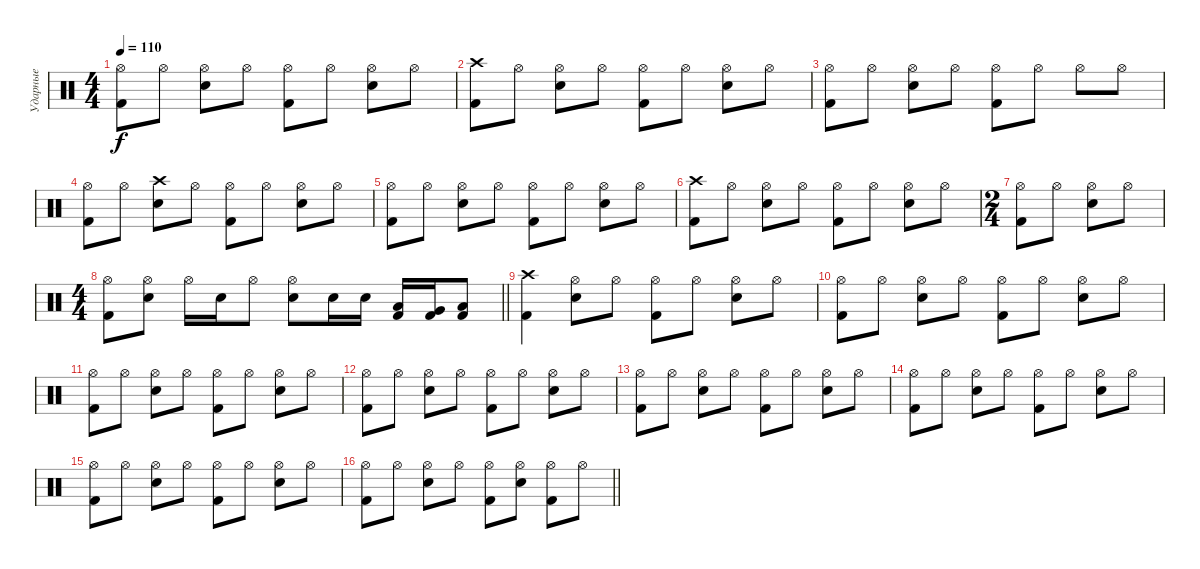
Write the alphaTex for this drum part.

\track ("Ударные" "Ударные") {instrument percussion}
\staff
\articulation defaults
\ts (4 4)
\tempo 110
\clef neutral
\ks c
("Kick (hit) 2" "Hi-Hat (open)").8{dy f} "Hi-Hat (open)".8 ("Snare (hit) 2" "Hi-Hat (open)").8 "Hi-Hat (open)".8 ("Kick (hit) 2" "Hi-Hat (open)").8 "Hi-Hat (open)".8 ("Snare (hit) 2" "Hi-Hat (open)").8 "Hi-Hat (open)".8 |
("Kick (hit) 2" "Crash high (hit)").8 "Hi-Hat (open)".8 ("Snare (hit) 2" "Hi-Hat (open)").8 "Hi-Hat (open)".8 ("Kick (hit) 2" "Hi-Hat (open)").8 "Hi-Hat (open)".8 ("Snare (hit) 2" "Hi-Hat (open)").8 "Hi-Hat (open)".8 |
("Kick (hit) 2" "Hi-Hat (open)").8 "Hi-Hat (open)".8 ("Snare (hit) 2" "Hi-Hat (open)").8 "Hi-Hat (open)".8 ("Kick (hit) 2" "Hi-Hat (open)").8 "Hi-Hat (open)".8 "Hi-Hat (open)".8 "Hi-Hat (open)".8 |
("Kick (hit) 2" "Hi-Hat (open)").8 "Hi-Hat (open)".8 ("Snare (hit) 2" "Crash high (hit)").8 "Hi-Hat (open)".8 ("Kick (hit) 2" "Hi-Hat (open)").8 "Hi-Hat (open)".8 ("Snare (hit) 2" "Hi-Hat (open)").8 "Hi-Hat (open)".8 |
("Kick (hit) 2" "Hi-Hat (open)").8 "Hi-Hat (open)".8 ("Snare (hit) 2" "Hi-Hat (open)").8 "Hi-Hat (open)".8 ("Kick (hit) 2" "Hi-Hat (open)").8 "Hi-Hat (open)".8 ("Snare (hit) 2" "Hi-Hat (open)").8 "Hi-Hat (open)".8 |
("Kick (hit) 2" "Crash high (hit)").8 "Hi-Hat (open)".8 ("Snare (hit) 2" "Hi-Hat (open)").8 "Hi-Hat (open)".8 ("Kick (hit) 2" "Hi-Hat (open)").8 "Hi-Hat (open)".8 ("Snare (hit) 2" "Hi-Hat (open)").8 "Hi-Hat (open)".8 |
\ts (2 4)
("Kick (hit) 2" "Hi-Hat (open)").8 "Hi-Hat (open)".8 ("Snare (hit) 2" "Hi-Hat (open)").8 "Hi-Hat (open)".8 |
\ts (4 4)
\barLineRight lightlight
("Kick (hit) 2" "Hi-Hat (open)").8 ("Snare (hit) 2" "Hi-Hat (open)").8 "Hi-Hat (open)".16 "Snare (hit) 2".16 "Hi-Hat (open)".8 ("Snare (hit) 2" "Hi-Hat (open)").8 "Snare (hit) 2".16 "Snare (hit) 2".16 ("Kick (hit) 2" "Low Tom (hit)").16 ("Kick (hit) 2" "Very Low Tom (hit)").16 ("Kick (hit) 2" "Low Floor Tom (hit)").8 |
("Kick (hit) 2" "Crash high (hit)").4 ("Snare (hit) 2" "Hi-Hat (open)").8 "Hi-Hat (open)".8 ("Kick (hit) 2" "Hi-Hat (open)").8 "Hi-Hat (open)".8 ("Snare (hit) 2" "Hi-Hat (open)").8 "Hi-Hat (open)".8 |
("Kick (hit) 2" "Hi-Hat (open)").8 "Hi-Hat (open)".8 ("Snare (hit) 2" "Hi-Hat (open)").8 "Hi-Hat (open)".8 ("Kick (hit) 2" "Hi-Hat (open)").8 "Hi-Hat (open)".8 ("Snare (hit) 2" "Hi-Hat (open)").8 "Hi-Hat (open)".8 |
("Kick (hit) 2" "Hi-Hat (open)").8 "Hi-Hat (open)".8 ("Snare (hit) 2" "Hi-Hat (open)").8 "Hi-Hat (open)".8 ("Kick (hit) 2" "Hi-Hat (open)").8 "Hi-Hat (open)".8 ("Snare (hit) 2" "Hi-Hat (open)").8 "Hi-Hat (open)".8 |
("Kick (hit) 2" "Hi-Hat (open)").8 "Hi-Hat (open)".8 ("Snare (hit) 2" "Hi-Hat (open)").8 "Hi-Hat (open)".8 ("Kick (hit) 2" "Hi-Hat (open)").8 "Hi-Hat (open)".8 ("Snare (hit) 2" "Hi-Hat (open)").8 "Hi-Hat (open)".8 |
("Kick (hit) 2" "Hi-Hat (open)").8 "Hi-Hat (open)".8 ("Snare (hit) 2" "Hi-Hat (open)").8 "Hi-Hat (open)".8 ("Kick (hit) 2" "Hi-Hat (open)").8 "Hi-Hat (open)".8 ("Snare (hit) 2" "Hi-Hat (open)").8 "Hi-Hat (open)".8 |
("Kick (hit) 2" "Hi-Hat (open)").8 "Hi-Hat (open)".8 ("Snare (hit) 2" "Hi-Hat (open)").8 "Hi-Hat (open)".8 ("Kick (hit) 2" "Hi-Hat (open)").8 "Hi-Hat (open)".8 ("Snare (hit) 2" "Hi-Hat (open)").8 "Hi-Hat (open)".8 |
("Kick (hit) 2" "Hi-Hat (open)").8 "Hi-Hat (open)".8 ("Snare (hit) 2" "Hi-Hat (open)").8 "Hi-Hat (open)".8 ("Kick (hit) 2" "Hi-Hat (open)").8 "Hi-Hat (open)".8 ("Snare (hit) 2" "Hi-Hat (open)").8 "Hi-Hat (open)".8 |
\barLineRight lightlight
("Kick (hit) 2" "Hi-Hat (open)").8 "Hi-Hat (open)".8 ("Snare (hit) 2" "Hi-Hat (open)").8 "Hi-Hat (open)".8 ("Kick (hit) 2" "Hi-Hat (open)").8 ("Snare (hit) 2" "Hi-Hat (open)").8 ("Kick (hit) 2" "Hi-Hat (open)").8 "Hi-Hat (open)".8
